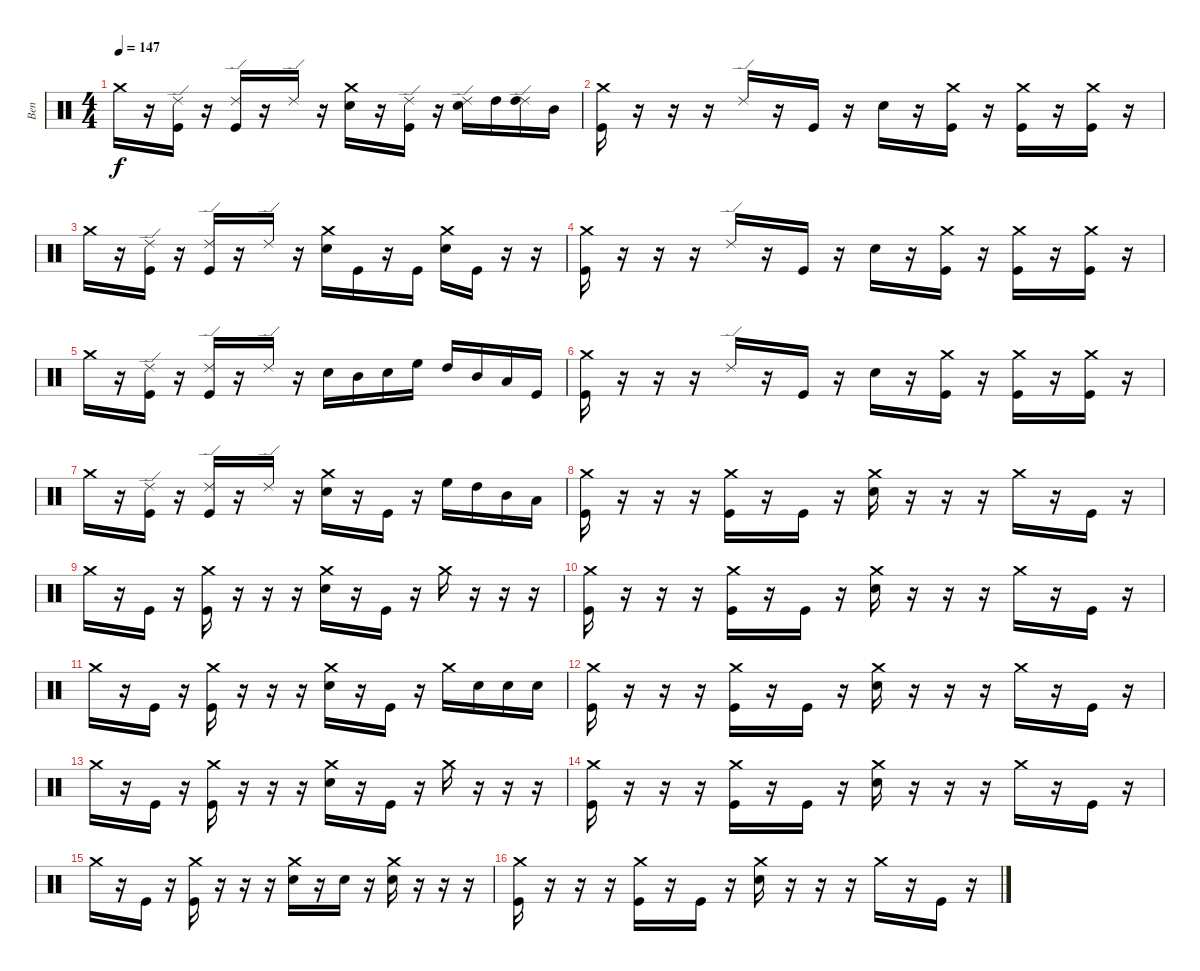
\track ("Ben" "Ben") {instrument percussion}
\staff {score}
\articulation defaults
\ts (4 4)
\tempo 147
\clef neutral
\ks c "Crash medium (hit)".16{dy f}
r.16 ("Ride (edge) 2" "Kick (hit)").16 r.16 ("Ride (edge) 2" "Kick (hit)").16 r.16 "Ride (edge) 2".16 r.16 ("Crash medium (hit)" "Electric Snare (hit)").16 r.16 ("Ride (edge) 2" "Kick (hit)").16 r.16 ("Ride (edge) 2" "Electric Snare (hit)").16 "High Tom (hit)".16 ("Ride (edge) 2" "High Tom (hit)").16 "Mid Tom (hit)".16 |
("Crash medium (hit)" "Kick (hit)").16 r.16 r.16 r.16 "Ride (edge) 2".16 r.16 "Kick (hit)".16 r.16 "Electric Snare (hit)".16 r.16 ("Crash medium (hit)" "Kick (hit)").16 r.16 ("Crash medium (hit)" "Kick (hit)").16 r.16 ("Crash medium (hit)" "Kick (hit)").16 r.16 |
"Crash medium (hit)".16 r.16 ("Ride (edge) 2" "Kick (hit)").16 r.16 ("Ride (edge) 2" "Kick (hit)").16 r.16 "Ride (edge) 2".16 r.16 ("Crash medium (hit)" "Electric Snare (hit)").16 "Kick (hit)".16 r.16 "Kick (hit)".16 ("Crash medium (hit)" "Electric Snare (hit)").16 "Kick (hit)".16 r.16 r.16 |
("Crash medium (hit)" "Kick (hit)").16 r.16 r.16 r.16 "Ride (edge) 2".16 r.16 "Kick (hit)".16 r.16 "Electric Snare (hit)".16 r.16 ("Crash medium (hit)" "Kick (hit)").16 r.16 ("Crash medium (hit)" "Kick (hit)").16 r.16 ("Crash medium (hit)" "Kick (hit)").16 r.16 |
"Crash medium (hit)".16 r.16 ("Ride (edge) 2" "Kick (hit)").16 r.16 ("Ride (edge) 2" "Kick (hit)").16 r.16 "Ride (edge) 2".16 r.16 "Electric Snare (hit)".16 "Mid Tom (hit)".16 "Electric Snare (hit)".16 "High Floor Tom (hit)".16 "High Tom (hit)".16 "Mid Tom (hit)".16 "Low Tom (hit)".16 "Kick (hit)".16 |
("Crash medium (hit)" "Kick (hit)").16 r.16 r.16 r.16 "Ride (edge) 2".16 r.16 "Kick (hit)".16 r.16 "Electric Snare (hit)".16 r.16 ("Crash medium (hit)" "Kick (hit)").16 r.16 ("Crash medium (hit)" "Kick (hit)").16 r.16 ("Crash medium (hit)" "Kick (hit)").16 r.16 |
"Crash medium (hit)".16 r.16 ("Ride (edge) 2" "Kick (hit)").16 r.16 ("Ride (edge) 2" "Kick (hit)").16 r.16 "Ride (edge) 2".16 r.16 ("Crash medium (hit)" "Electric Snare (hit)").16 r.16 "Kick (hit)".16 r.16 "High Floor Tom (hit)".16 "High Tom (hit)".16 "Mid Tom (hit)".16 "Low Tom (hit)".16 |
("Crash medium (hit)" "Kick (hit)").16 r.16 r.16 r.16 ("Crash medium (hit)" "Kick (hit)").16 r.16 "Kick (hit)".16 r.16 ("Crash medium (hit)" "Electric Snare (hit)").16 r.16 r.16 r.16 "Crash medium (hit)".16 r.16 "Kick (hit)".16 r.16 |
"Crash medium (hit)".16 r.16 "Kick (hit)".16 r.16 ("Crash medium (hit)" "Kick (hit)").16 r.16 r.16 r.16 ("Crash medium (hit)" "Electric Snare (hit)").16 r.16 "Kick (hit)".16 r.16 "Crash medium (hit)".16 r.16 r.16 r.16 |
("Crash medium (hit)" "Kick (hit)").16 r.16 r.16 r.16 ("Crash medium (hit)" "Kick (hit)").16 r.16 "Kick (hit)".16 r.16 ("Crash medium (hit)" "Electric Snare (hit)").16 r.16 r.16 r.16 "Crash medium (hit)".16 r.16 "Kick (hit)".16 r.16 |
"Crash medium (hit)".16 r.16 "Kick (hit)".16 r.16 ("Crash medium (hit)" "Kick (hit)").16 r.16 r.16 r.16 ("Crash medium (hit)" "Electric Snare (hit)").16 r.16 "Kick (hit)".16 r.16 "Crash medium (hit)".16 "Electric Snare (hit)".16 "Electric Snare (hit)".16 "Electric Snare (hit)".16 |
("Crash medium (hit)" "Kick (hit)").16 r.16 r.16 r.16 ("Crash medium (hit)" "Kick (hit)").16 r.16 "Kick (hit)".16 r.16 ("Crash medium (hit)" "Electric Snare (hit)").16 r.16 r.16 r.16 "Crash medium (hit)".16 r.16 "Kick (hit)".16 r.16 |
"Crash medium (hit)".16 r.16 "Kick (hit)".16 r.16 ("Crash medium (hit)" "Kick (hit)").16 r.16 r.16 r.16 ("Crash medium (hit)" "Electric Snare (hit)").16 r.16 "Kick (hit)".16 r.16 "Crash medium (hit)".16 r.16 r.16 r.16 |
("Crash medium (hit)" "Kick (hit)").16 r.16 r.16 r.16 ("Crash medium (hit)" "Kick (hit)").16 r.16 "Kick (hit)".16 r.16 ("Crash medium (hit)" "Electric Snare (hit)").16 r.16 r.16 r.16 "Crash medium (hit)".16 r.16 "Kick (hit)".16 r.16 |
"Crash medium (hit)".16 r.16 "Kick (hit)".16 r.16 ("Crash medium (hit)" "Kick (hit)").16 r.16 r.16 r.16 ("Crash medium (hit)" "Electric Snare (hit)").16 r.16 "Electric Snare (hit)".16 r.16 ("Crash medium (hit)" "Electric Snare (hit)").16 r.16 r.16 r.16 |
("Crash medium (hit)" "Kick (hit)").16 r.16 r.16 r.16 ("Crash medium (hit)" "Kick (hit)").16 r.16 "Kick (hit)".16 r.16 ("Crash medium (hit)" "Electric Snare (hit)").16 r.16 r.16 r.16 "Crash medium (hit)".16 r.16 "Kick (hit)".16 r.16
